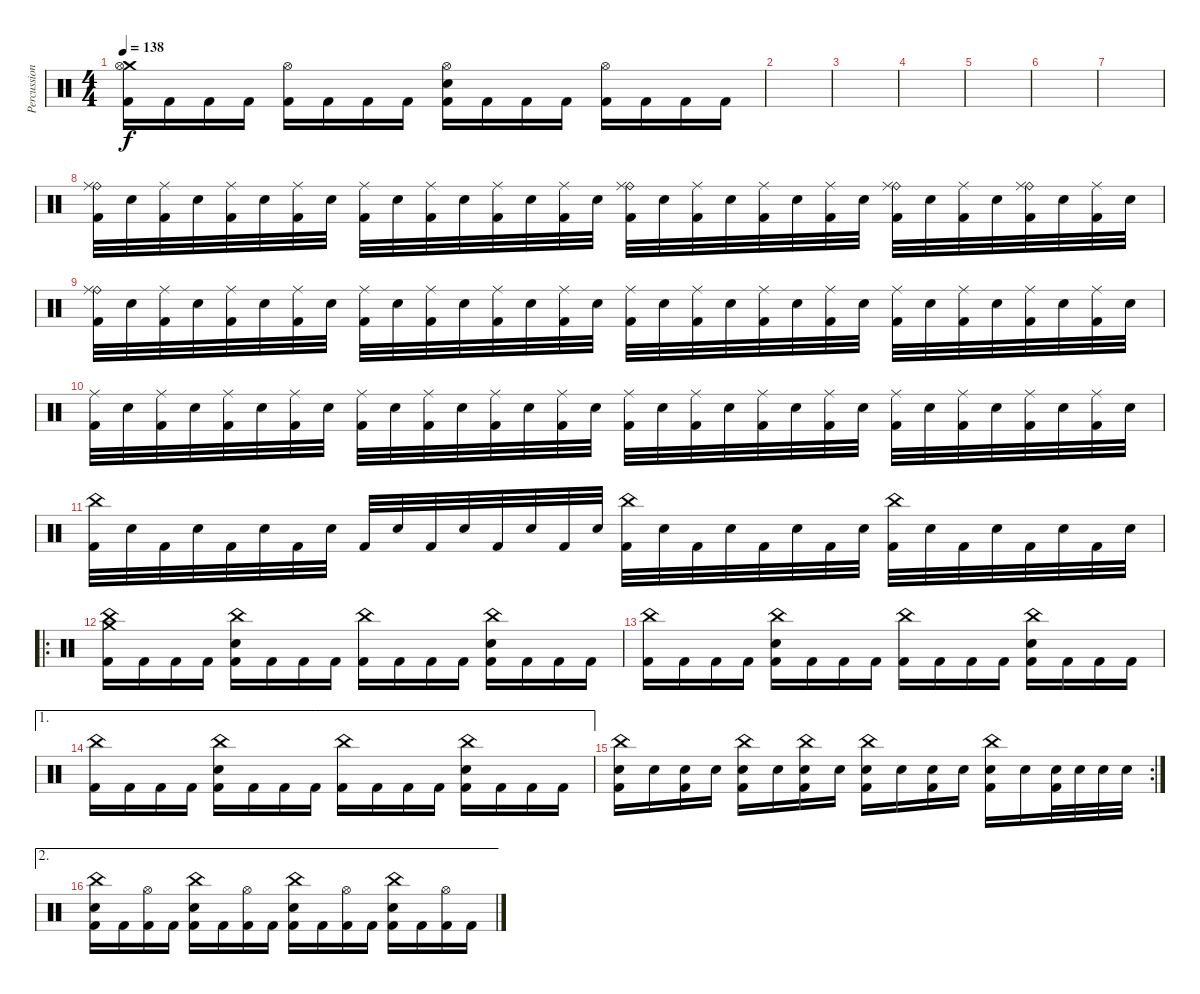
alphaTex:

\track ("Percussion" "Percussion") {instrument percussion}
\staff {score}
\articulation defaults
\ts (4 4)
\tempo 138
\clef neutral
\ks c
("Crash medium (hit)" "Hi-Hat (open)" "Kick (hit) 2").16{dy f} "Kick (hit) 2".16 "Kick (hit) 2".16 "Kick (hit) 2".16 ("Hi-Hat (open)" "Kick (hit) 2").16 "Kick (hit) 2".16 "Kick (hit) 2".16 "Kick (hit) 2".16 ("Hi-Hat (open)" "Electric Snare (hit)" "Kick (hit) 2").16 "Kick (hit) 2".16 "Kick (hit) 2".16 "Kick (hit) 2".16 ("Hi-Hat (open)" "Kick (hit) 2").16 "Kick (hit) 2".16 "Kick (hit) 2".16 "Kick (hit) 2".16 |
|
|
|
|
|
|
("Ride (bell)" "Ride (middle)" "Kick (hit) 2").32 "Electric Snare (hit)".32 ("Ride (middle)" "Kick (hit) 2").32 "Electric Snare (hit)".32 ("Ride (middle)" "Kick (hit) 2").32 "Electric Snare (hit)".32 ("Ride (middle)" "Kick (hit) 2").32 "Electric Snare (hit)".32 ("Ride (middle)" "Kick (hit) 2").32 "Electric Snare (hit)".32 ("Ride (middle)" "Kick (hit) 2").32 "Electric Snare (hit)".32 ("Ride (middle)" "Kick (hit) 2").32 "Electric Snare (hit)".32 ("Ride (middle)" "Kick (hit) 2").32 "Electric Snare (hit)".32 ("Ride (bell)" "Ride (middle)" "Kick (hit) 2").32 "Electric Snare (hit)".32 ("Ride (middle)" "Kick (hit) 2").32 "Electric Snare (hit)".32 ("Ride (middle)" "Kick (hit) 2").32 "Electric Snare (hit)".32 ("Ride (middle)" "Kick (hit) 2").32 "Electric Snare (hit)".32 ("Ride (bell)" "Ride (middle)" "Kick (hit) 2").32 "Electric Snare (hit)".32 ("Ride (middle)" "Kick (hit) 2").32 "Electric Snare (hit)".32 ("Ride (bell)" "Ride (middle)" "Kick (hit) 2").32 "Electric Snare (hit)".32 ("Ride (middle)" "Kick (hit) 2").32 "Electric Snare (hit)".32 |
("Ride (bell)" "Ride (middle)" "Kick (hit) 2").32 "Electric Snare (hit)".32 ("Ride (middle)" "Kick (hit) 2").32 "Electric Snare (hit)".32 ("Ride (middle)" "Kick (hit) 2").32 "Electric Snare (hit)".32 ("Ride (middle)" "Kick (hit) 2").32 "Electric Snare (hit)".32 ("Ride (middle)" "Kick (hit) 2").32 "Electric Snare (hit)".32 ("Ride (middle)" "Kick (hit) 2").32 "Electric Snare (hit)".32 ("Ride (middle)" "Kick (hit) 2").32 "Electric Snare (hit)".32 ("Ride (middle)" "Kick (hit) 2").32 "Electric Snare (hit)".32 ("Ride (middle)" "Kick (hit) 2").32 "Electric Snare (hit)".32 ("Ride (middle)" "Kick (hit) 2").32 "Electric Snare (hit)".32 ("Ride (middle)" "Kick (hit) 2").32 "Electric Snare (hit)".32 ("Ride (middle)" "Kick (hit) 2").32 "Electric Snare (hit)".32 ("Ride (middle)" "Kick (hit) 2").32 "Electric Snare (hit)".32 ("Ride (middle)" "Kick (hit) 2").32 "Electric Snare (hit)".32 ("Ride (middle)" "Kick (hit) 2").32 "Electric Snare (hit)".32 ("Ride (middle)" "Kick (hit) 2").32 "Electric Snare (hit)".32 |
("Ride (middle)" "Kick (hit) 2").32 "Electric Snare (hit)".32 ("Ride (middle)" "Kick (hit) 2").32 "Electric Snare (hit)".32 ("Ride (middle)" "Kick (hit) 2").32 "Electric Snare (hit)".32 ("Ride (middle)" "Kick (hit) 2").32 "Electric Snare (hit)".32 ("Ride (middle)" "Kick (hit) 2").32 "Electric Snare (hit)".32 ("Ride (middle)" "Kick (hit) 2").32 "Electric Snare (hit)".32 ("Ride (middle)" "Kick (hit) 2").32 "Electric Snare (hit)".32 ("Ride (middle)" "Kick (hit) 2").32 "Electric Snare (hit)".32 ("Ride (middle)" "Kick (hit) 2").32 "Electric Snare (hit)".32 ("Ride (middle)" "Kick (hit) 2").32 "Electric Snare (hit)".32 ("Ride (middle)" "Kick (hit) 2").32 "Electric Snare (hit)".32 ("Ride (middle)" "Kick (hit) 2").32 "Electric Snare (hit)".32 ("Ride (middle)" "Kick (hit) 2").32 "Electric Snare (hit)".32 ("Ride (middle)" "Kick (hit) 2").32 "Electric Snare (hit)".32 ("Ride (middle)" "Kick (hit) 2").32 "Electric Snare (hit)".32 ("Ride (middle)" "Kick (hit) 2").32 "Electric Snare (hit)".32 |
("China (hit)" "Kick (hit) 2").32 "Electric Snare (hit)".32 "Kick (hit) 2".32 "Electric Snare (hit)".32 "Kick (hit) 2".32 "Electric Snare (hit)".32 "Kick (hit) 2".32 "Electric Snare (hit)".32 "Kick (hit) 2".32 "Electric Snare (hit)".32 "Kick (hit) 2".32 "Electric Snare (hit)".32 "Kick (hit) 2".32 "Electric Snare (hit)".32 "Kick (hit) 2".32 "Electric Snare (hit)".32 ("China (hit)" "Kick (hit) 2").32 "Electric Snare (hit)".32 "Kick (hit) 2".32 "Electric Snare (hit)".32 "Kick (hit) 2".32 "Electric Snare (hit)".32 "Kick (hit) 2".32 "Electric Snare (hit)".32 ("China (hit)" "Kick (hit) 2").32 "Electric Snare (hit)".32 "Kick (hit) 2".32 "Electric Snare (hit)".32 "Kick (hit) 2".32 "Electric Snare (hit)".32 "Kick (hit) 2".32 "Electric Snare (hit)".32 |
\ro
("China (hit)" "Crash medium (hit)" "Kick (hit) 2").16 "Kick (hit) 2".16 "Kick (hit) 2".16 "Kick (hit) 2".16 ("China (hit)" "Electric Snare (hit)" "Kick (hit) 2").16 "Kick (hit) 2".16 "Kick (hit) 2".16 "Kick (hit) 2".16 ("China (hit)" "Kick (hit) 2").16 "Kick (hit) 2".16 "Kick (hit) 2".16 "Kick (hit) 2".16 ("China (hit)" "Electric Snare (hit)" "Kick (hit) 2").16 "Kick (hit) 2".16 "Kick (hit) 2".16 "Kick (hit) 2".16 |
("China (hit)" "Kick (hit) 2").16 "Kick (hit) 2".16 "Kick (hit) 2".16 "Kick (hit) 2".16 ("China (hit)" "Electric Snare (hit)" "Kick (hit) 2").16 "Kick (hit) 2".16 "Kick (hit) 2".16 "Kick (hit) 2".16 ("China (hit)" "Kick (hit) 2").16 "Kick (hit) 2".16 "Kick (hit) 2".16 "Kick (hit) 2".16 ("China (hit)" "Electric Snare (hit)" "Kick (hit) 2").16 "Kick (hit) 2".16 "Kick (hit) 2".16 "Kick (hit) 2".16 |
\ae 1
("China (hit)" "Kick (hit) 2").16 "Kick (hit) 2".16 "Kick (hit) 2".16 "Kick (hit) 2".16 ("China (hit)" "Electric Snare (hit)" "Kick (hit) 2").16 "Kick (hit) 2".16 "Kick (hit) 2".16 "Kick (hit) 2".16 ("China (hit)" "Kick (hit) 2").16 "Kick (hit) 2".16 "Kick (hit) 2".16 "Kick (hit) 2".16 ("China (hit)" "Electric Snare (hit)" "Kick (hit) 2").16 "Kick (hit) 2".16 "Kick (hit) 2".16 "Kick (hit) 2".16 |
\rc 2
("China (hit)" "Electric Snare (hit)" "Kick (hit) 2").16 "Electric Snare (hit)".16 ("Electric Snare (hit)" "Kick (hit) 2").16 "Electric Snare (hit)".16 ("China (hit)" "Electric Snare (hit)" "Kick (hit) 2").16 "Electric Snare (hit)".16 ("China (hit)" "Electric Snare (hit)" "Kick (hit) 2").16 "Electric Snare (hit)".16 ("China (hit)" "Electric Snare (hit)" "Kick (hit) 2").16 "Electric Snare (hit)".16 ("Electric Snare (hit)" "Kick (hit) 2").16 "Electric Snare (hit)".16 ("China (hit)" "Electric Snare (hit)" "Kick (hit) 2").16 "Electric Snare (hit)".16 ("Electric Snare (hit)" "Kick (hit) 2").32 "Electric Snare (hit)".32 "Electric Snare (hit)".32 "Electric Snare (hit)".32 |
\ae 2
("China (hit)" "Electric Snare (hit)" "Kick (hit) 2").16 "Kick (hit) 2".16 ("Hi-Hat (open)" "Kick (hit) 2").16 "Kick (hit) 2".16 ("China (hit)" "Electric Snare (hit)" "Kick (hit) 2").16 "Kick (hit) 2".16 ("Hi-Hat (open)" "Kick (hit) 2").16 "Kick (hit) 2".16 ("China (hit)" "Electric Snare (hit)" "Kick (hit) 2").16 "Kick (hit) 2".16 ("Hi-Hat (open)" "Kick (hit) 2").16 "Kick (hit) 2".16 ("China (hit)" "Electric Snare (hit)" "Kick (hit) 2").16 "Kick (hit) 2".16 ("Hi-Hat (open)" "Kick (hit) 2").16 "Kick (hit) 2".16
